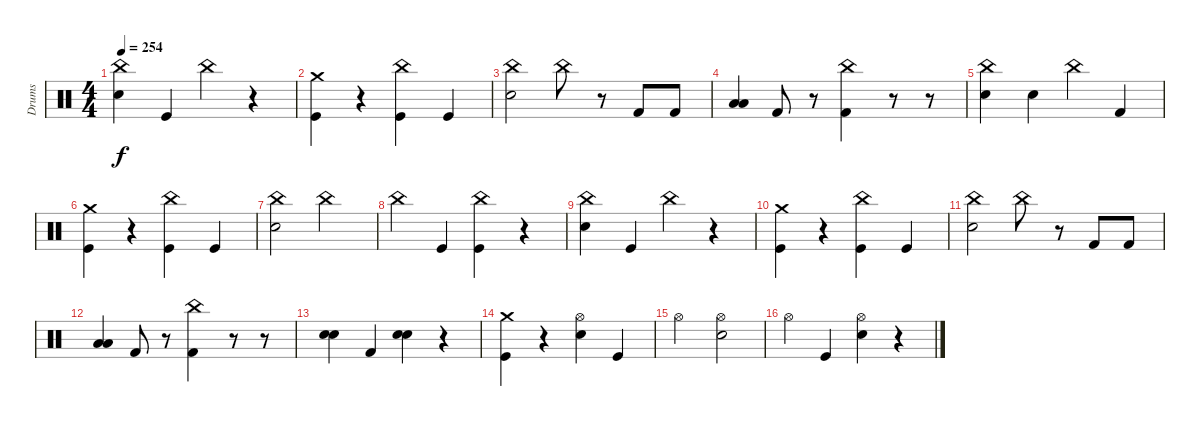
\track ("Drums" "Drums") {instrument percussion}
\staff {score}
\articulation defaults
\ts (4 4)
\tempo 254
\clef neutral
\ks c
("China (hit)" "Electric Snare (hit)").4{dy f} "Kick (hit)".4 "China (hit)".4 r.4 |
("Crash medium (hit)" "Kick (hit)").4 r.4 ("China (hit)" "Kick (hit)").4 "Kick (hit)".4 |
("China (hit)" "Electric Snare (hit)").2 "China (hit)".8 r.8 "Kick (hit) 2".8 "Kick (hit) 2".8 |
("Low Tom (hit)" "Low Tom (hit)").4{bu 60} "Kick (hit) 2".8 r.8 ("China (hit)" "Kick (hit) 2").4 r.8 r.8 |
("China (hit)" "Electric Snare (hit)").4 "Electric Snare (hit)".4 "China (hit)".4 "Kick (hit) 2".4 |
("Crash medium (hit)" "Kick (hit)").4 r.4 ("China (hit)" "Kick (hit)").4 "Kick (hit)".4 |
("China (hit)" "Electric Snare (hit)").2 "China (hit)".2 |
"China (hit)".4 "Kick (hit)".4 ("China (hit)" "Kick (hit)").4 r.4 |
("China (hit)" "Electric Snare (hit)").4 "Kick (hit)".4 "China (hit)".4 r.4 |
("Crash medium (hit)" "Kick (hit)").4 r.4 ("China (hit)" "Kick (hit)").4 "Kick (hit)".4 |
("China (hit)" "Electric Snare (hit)").2 "China (hit)".8 r.8 "Kick (hit) 2".8 "Kick (hit) 2".8 |
("Low Tom (hit)" "Low Tom (hit)").4{bu 60} "Kick (hit) 2".8 r.8 ("China (hit)" "Kick (hit) 2").4 r.8 r.8 |
("Electric Snare (hit)" "Electric Snare (hit)").4{bu 60} "Kick (hit) 2".4 ("Electric Snare (hit)" "Electric Snare (hit)").4{bu 60} r.4 |
("Crash medium (hit)" "Kick (hit)").4 r.4 ("Hi-Hat (open)" "Electric Snare (hit)").4 "Kick (hit)".4 |
"Hi-Hat (open)".2 ("Hi-Hat (open)" "Electric Snare (hit)").2 |
"Hi-Hat (open)".4 "Kick (hit)".4 ("Hi-Hat (open)" "Electric Snare (hit)").4 r.4
